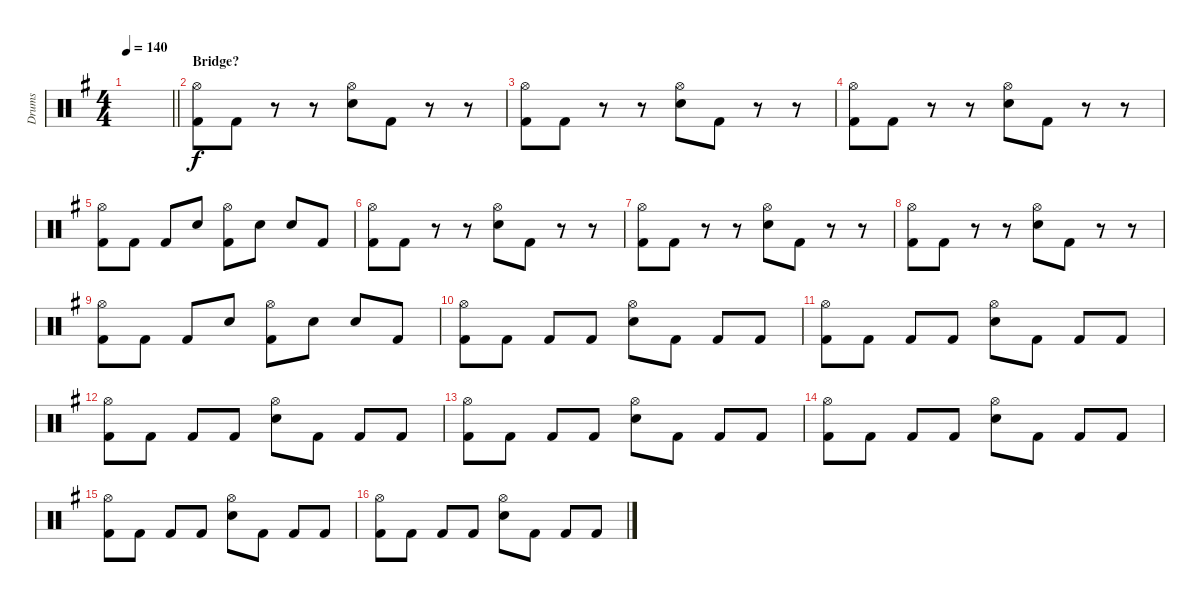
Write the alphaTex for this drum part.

\track ("Drums" "Drums") {instrument percussion}
\staff {score}
\articulation defaults
\ts (4 4)
\tempo 140
\clef neutral
\barLineRight lightlight
\ks g
|
\section ("" "Bridge?")
("Hi-Hat (open)" "Kick (hit) 2").8 "Kick (hit) 2".8 r.8 r.8 ("Hi-Hat (open)" "Electric Snare (hit)").8 "Kick (hit) 2".8 r.8 r.8 |
("Hi-Hat (open)" "Kick (hit) 2").8 "Kick (hit) 2".8 r.8 r.8 ("Hi-Hat (open)" "Electric Snare (hit)").8 "Kick (hit) 2".8 r.8 r.8 |
("Hi-Hat (open)" "Kick (hit) 2").8 "Kick (hit) 2".8 r.8 r.8 ("Hi-Hat (open)" "Electric Snare (hit)").8 "Kick (hit) 2".8 r.8 r.8 |
("Hi-Hat (open)" "Kick (hit) 2").8 "Kick (hit) 2".8 "Kick (hit) 2".8 "Electric Snare (hit)".8 ("Hi-Hat (open)" "Kick (hit) 2").8 "Electric Snare (hit)".8 "Electric Snare (hit)".8 "Kick (hit) 2".8 |
("Hi-Hat (open)" "Kick (hit) 2").8 "Kick (hit) 2".8 r.8 r.8 ("Hi-Hat (open)" "Electric Snare (hit)").8 "Kick (hit) 2".8 r.8 r.8 |
("Hi-Hat (open)" "Kick (hit) 2").8 "Kick (hit) 2".8 r.8 r.8 ("Hi-Hat (open)" "Electric Snare (hit)").8 "Kick (hit) 2".8 r.8 r.8 |
("Hi-Hat (open)" "Kick (hit) 2").8 "Kick (hit) 2".8 r.8 r.8 ("Hi-Hat (open)" "Electric Snare (hit)").8 "Kick (hit) 2".8 r.8 r.8 |
("Hi-Hat (open)" "Kick (hit) 2").8 "Kick (hit) 2".8 "Kick (hit) 2".8 "Electric Snare (hit)".8 ("Hi-Hat (open)" "Kick (hit) 2").8 "Electric Snare (hit)".8 "Electric Snare (hit)".8 "Kick (hit) 2".8 |
("Hi-Hat (open)" "Kick (hit) 2").8 "Kick (hit) 2".8 "Kick (hit) 2".8 "Kick (hit) 2".8 ("Hi-Hat (open)" "Electric Snare (hit)").8 "Kick (hit) 2".8 "Kick (hit) 2".8 "Kick (hit) 2".8 |
("Hi-Hat (open)" "Kick (hit) 2").8 "Kick (hit) 2".8 "Kick (hit) 2".8 "Kick (hit) 2".8 ("Hi-Hat (open)" "Electric Snare (hit)").8 "Kick (hit) 2".8 "Kick (hit) 2".8 "Kick (hit) 2".8 |
("Hi-Hat (open)" "Kick (hit) 2").8 "Kick (hit) 2".8 "Kick (hit) 2".8 "Kick (hit) 2".8 ("Hi-Hat (open)" "Electric Snare (hit)").8 "Kick (hit) 2".8 "Kick (hit) 2".8 "Kick (hit) 2".8 |
("Hi-Hat (open)" "Kick (hit) 2").8 "Kick (hit) 2".8 "Kick (hit) 2".8 "Kick (hit) 2".8 ("Hi-Hat (open)" "Electric Snare (hit)").8 "Kick (hit) 2".8 "Kick (hit) 2".8 "Kick (hit) 2".8 |
("Hi-Hat (open)" "Kick (hit) 2").8 "Kick (hit) 2".8 "Kick (hit) 2".8 "Kick (hit) 2".8 ("Hi-Hat (open)" "Electric Snare (hit)").8 "Kick (hit) 2".8 "Kick (hit) 2".8 "Kick (hit) 2".8 |
("Hi-Hat (open)" "Kick (hit) 2").8 "Kick (hit) 2".8 "Kick (hit) 2".8 "Kick (hit) 2".8 ("Hi-Hat (open)" "Electric Snare (hit)").8 "Kick (hit) 2".8 "Kick (hit) 2".8 "Kick (hit) 2".8 |
("Hi-Hat (open)" "Kick (hit) 2").8 "Kick (hit) 2".8 "Kick (hit) 2".8 "Kick (hit) 2".8 ("Hi-Hat (open)" "Electric Snare (hit)").8 "Kick (hit) 2".8 "Kick (hit) 2".8 "Kick (hit) 2".8
